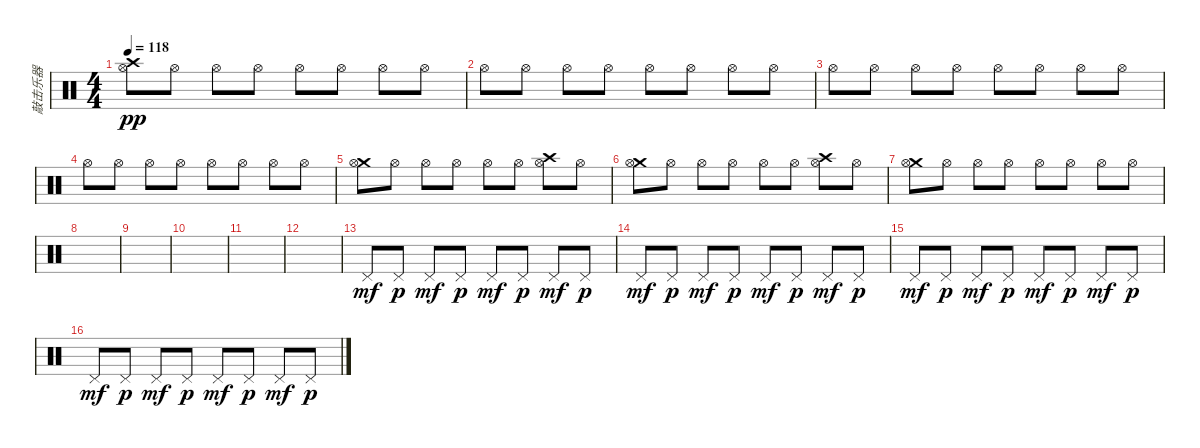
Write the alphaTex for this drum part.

\track ("敲击乐器" "敲击乐器") {instrument percussion}
\staff {score}
\articulation defaults
\ts (4 4)
\tempo 118
\clef neutral
\ks c
("Crash high (hit)" "Hi-Hat (open)").8{dy pp} "Hi-Hat (open)".8 "Hi-Hat (open)".8 "Hi-Hat (open)".8 "Hi-Hat (open)".8 "Hi-Hat (open)".8 "Hi-Hat (open)".8 "Hi-Hat (open)".8 |
"Hi-Hat (open)".8 "Hi-Hat (open)".8 "Hi-Hat (open)".8 "Hi-Hat (open)".8 "Hi-Hat (open)".8 "Hi-Hat (open)".8 "Hi-Hat (open)".8 "Hi-Hat (open)".8 |
"Hi-Hat (open)".8 "Hi-Hat (open)".8 "Hi-Hat (open)".8 "Hi-Hat (open)".8 "Hi-Hat (open)".8 "Hi-Hat (open)".8 "Hi-Hat (open)".8 "Hi-Hat (open)".8 |
"Hi-Hat (open)".8 "Hi-Hat (open)".8 "Hi-Hat (open)".8 "Hi-Hat (open)".8 "Hi-Hat (open)".8 "Hi-Hat (open)".8 "Hi-Hat (open)".8 "Hi-Hat (open)".8 |
("Crash medium (hit)" "Hi-Hat (open)").8 "Hi-Hat (open)".8 "Hi-Hat (open)".8 "Hi-Hat (open)".8 "Hi-Hat (open)".8 "Hi-Hat (open)".8 ("Crash high (hit)" "Hi-Hat (open)").8 "Hi-Hat (open)".8 |
("Crash medium (hit)" "Hi-Hat (open)").8 "Hi-Hat (open)".8 "Hi-Hat (open)".8 "Hi-Hat (open)".8 "Hi-Hat (open)".8 "Hi-Hat (open)".8 ("Crash high (hit)" "Hi-Hat (open)").8 "Hi-Hat (open)".8 |
("Crash medium (hit)" "Hi-Hat (open)").8 "Hi-Hat (open)".8 "Hi-Hat (open)".8 "Hi-Hat (open)".8 "Hi-Hat (open)".8 "Hi-Hat (open)".8 "Hi-Hat (open)".8 "Hi-Hat (open)".8 |
|
|
|
|
|
"Pedal Hi-Hat (hit)".8{dy mf} "Pedal Hi-Hat (hit)".8{dy p} "Pedal Hi-Hat (hit)".8{dy mf} "Pedal Hi-Hat (hit)".8{dy p} "Pedal Hi-Hat (hit)".8{dy mf} "Pedal Hi-Hat (hit)".8{dy p} "Pedal Hi-Hat (hit)".8{dy mf} "Pedal Hi-Hat (hit)".8{dy p} |
"Pedal Hi-Hat (hit)".8{dy mf} "Pedal Hi-Hat (hit)".8{dy p} "Pedal Hi-Hat (hit)".8{dy mf} "Pedal Hi-Hat (hit)".8{dy p} "Pedal Hi-Hat (hit)".8{dy mf} "Pedal Hi-Hat (hit)".8{dy p} "Pedal Hi-Hat (hit)".8{dy mf} "Pedal Hi-Hat (hit)".8{dy p} |
"Pedal Hi-Hat (hit)".8{dy mf} "Pedal Hi-Hat (hit)".8{dy p} "Pedal Hi-Hat (hit)".8{dy mf} "Pedal Hi-Hat (hit)".8{dy p} "Pedal Hi-Hat (hit)".8{dy mf} "Pedal Hi-Hat (hit)".8{dy p} "Pedal Hi-Hat (hit)".8{dy mf} "Pedal Hi-Hat (hit)".8{dy p} |
"Pedal Hi-Hat (hit)".8{dy mf} "Pedal Hi-Hat (hit)".8{dy p} "Pedal Hi-Hat (hit)".8{dy mf} "Pedal Hi-Hat (hit)".8{dy p} "Pedal Hi-Hat (hit)".8{dy mf} "Pedal Hi-Hat (hit)".8{dy p} "Pedal Hi-Hat (hit)".8{dy mf} "Pedal Hi-Hat (hit)".8{dy p}
